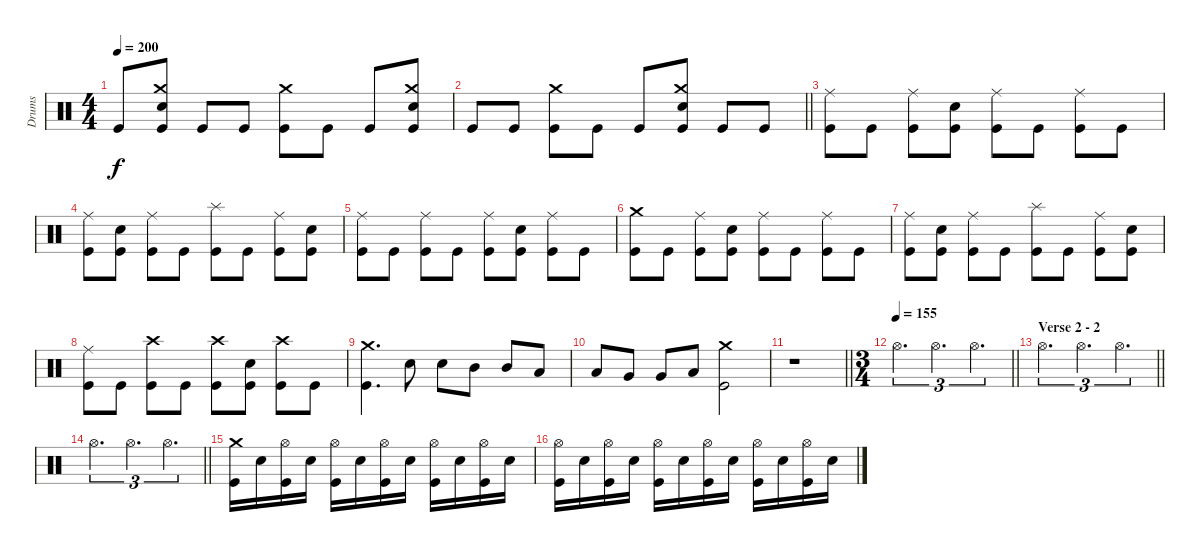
\track ("Drums" "Drums") {instrument percussion}
\staff {score}
\articulation defaults
\ts (4 4)
\tempo 200
\clef neutral
\ks c "Kick (hit)".8{dy f}
("Crash medium (hit)" "Snare (hit) 2" "Kick (hit)").8 "Kick (hit)".8 "Kick (hit)".8 ("Crash medium (hit)" "Kick (hit)").8 "Kick (hit)".8 "Kick (hit)".8 ("Crash medium (hit)" "Snare (hit) 2" "Kick (hit)").8 |
\barLineRight lightlight "Kick (hit)".8 "Kick (hit)".8
("Crash medium (hit)" "Kick (hit)").8 "Kick (hit)".8 "Kick (hit)".8 ("Crash medium (hit)" "Snare (hit) 2" "Kick (hit)").8 "Kick (hit)".8 "Kick (hit)".8 |
("Ride (middle)" "Kick (hit)").8 "Kick (hit)".8 ("Ride (middle)" "Kick (hit)").8 ("Snare (hit) 2" "Kick (hit)").8 ("Ride (middle)" "Kick (hit)").8 "Kick (hit)".8 ("Ride (middle)" "Kick (hit)").8 "Kick (hit)".8 |
("Ride (middle)" "Kick (hit)").8 ("Snare (hit) 2" "Kick (hit)").8 ("Ride (middle)" "Kick (hit)").8 "Kick (hit)".8 ("Splash (hit)" "Kick (hit)").8 "Kick (hit)".8 ("Ride (middle)" "Kick (hit)").8 ("Snare (hit) 2" "Kick (hit)").8 |
("Ride (middle)" "Kick (hit)").8 "Kick (hit)".8 ("Ride (middle)" "Kick (hit)").8 "Kick (hit)".8 ("Ride (middle)" "Kick (hit)").8 ("Snare (hit) 2" "Kick (hit)").8 ("Ride (middle)" "Kick (hit)").8 "Kick (hit)".8 |
("Crash medium (hit)" "Kick (hit)").8 "Kick (hit)".8 ("Ride (middle)" "Kick (hit)").8 ("Snare (hit) 2" "Kick (hit)").8 ("Ride (middle)" "Kick (hit)").8 "Kick (hit)".8 ("Ride (middle)" "Kick (hit)").8 "Kick (hit)".8 |
("Ride (middle)" "Kick (hit)").8 ("Snare (hit) 2" "Kick (hit)").8 ("Ride (middle)" "Kick (hit)").8 "Kick (hit)".8 ("Splash (hit)" "Kick (hit)").8 "Kick (hit)".8 ("Ride (middle)" "Kick (hit)").8 ("Snare (hit) 2" "Kick (hit)").8 |
("Ride (middle)" "Kick (hit)").8 "Kick (hit)".8 ("Crash high (hit)" "Kick (hit)").8 "Kick (hit)".8 ("Crash high (hit)" "Kick (hit)").8 ("Snare (hit) 2" "Kick (hit)").8 ("Crash high (hit)" "Kick (hit)").8 "Kick (hit)".8 |
("Crash medium (hit)" "Kick (hit)").4{d} "Snare (hit) 2".8 "Snare (hit) 2".8 "Mid Tom (hit)".8 "Mid Tom (hit)".8 "Low Tom (hit)".8 |
"Low Tom (hit)".8 "Very Low Tom (hit)".8 "Very Low Tom (hit)".8 "Low Floor Tom (hit)".8 ("Crash medium (hit)" "Kick (hit)").2 |
\barLineRight lightlight
r.1 |
\ts (3 4)
\tempo 155
\barLineRight lightlight "Hi-Hat (open)".4{d tu (3 2)} "Hi-Hat (open)".4{d tu (3 2)} "Hi-Hat (open)".4{d tu (3 2)}
|
\section ("" "Verse 2 - 2")
\barLineRight lightlight "Hi-Hat (open)".4{d tu (3 2)} "Hi-Hat (open)".4{d tu (3 2)} "Hi-Hat (open)".4{d tu (3 2)}
|
\barLineRight lightlight "Hi-Hat (open)".4{d tu (3 2)} "Hi-Hat (open)".4{d tu (3 2)} "Hi-Hat (open)".4{d tu (3 2)}
|
("Crash medium (hit)" "Kick (hit)").16 "Snare (hit) 2".16 ("Hi-Hat (open)" "Kick (hit)").16 "Snare (hit) 2".16 ("Hi-Hat (open)" "Kick (hit)").16 "Snare (hit) 2".16 ("Hi-Hat (open)" "Kick (hit)").16 "Snare (hit) 2".16 ("Hi-Hat (open)" "Kick (hit)").16 "Snare (hit) 2".16 ("Hi-Hat (open)" "Kick (hit)").16 "Snare (hit) 2".16 |
("Hi-Hat (open)" "Kick (hit)").16 "Snare (hit) 2".16 ("Hi-Hat (open)" "Kick (hit)").16 "Snare (hit) 2".16 ("Hi-Hat (open)" "Kick (hit)").16 "Snare (hit) 2".16 ("Hi-Hat (open)" "Kick (hit)").16 "Snare (hit) 2".16 ("Hi-Hat (open)" "Kick (hit)").16 "Snare (hit) 2".16 ("Hi-Hat (open)" "Kick (hit)").16 "Snare (hit) 2".16
